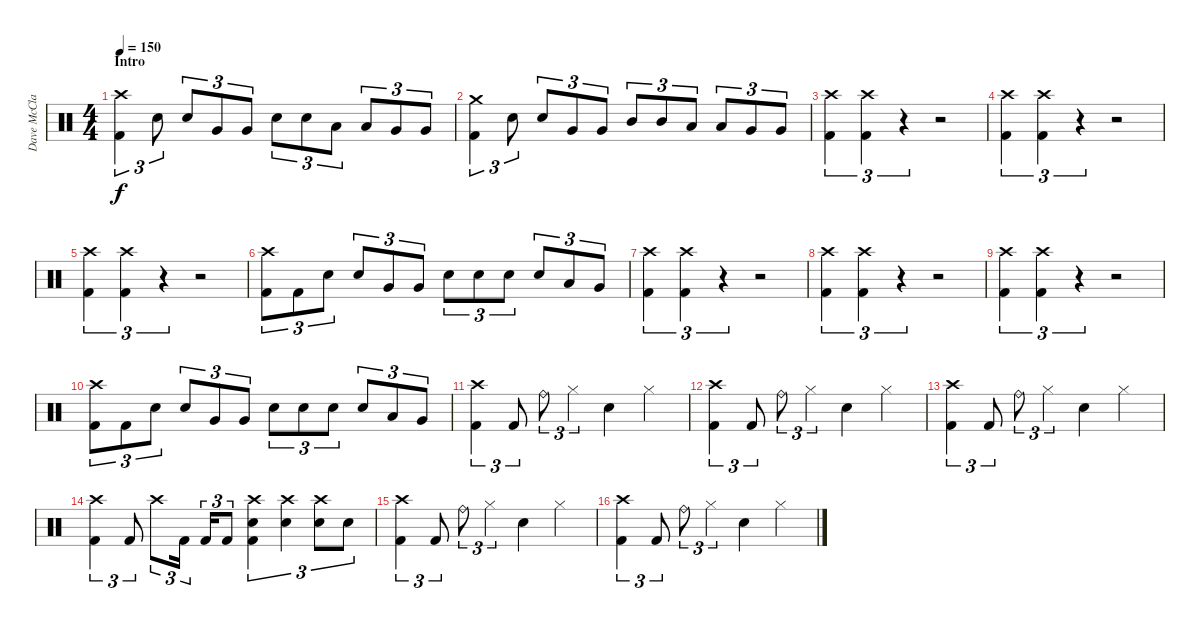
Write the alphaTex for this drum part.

\track ("Dave McClain" "Dave McCla") {instrument percussion}
\staff {score}
\articulation defaults
\ts (4 4)
\section ("" "Intro")
\tempo 150
\clef neutral
\ks c
("Crash high (hit)" "Kick (hit) 2").4{tu (3 2) dy f} "Electric Snare (hit)".8{tu (3 2)} "Electric Snare (hit)".8{tu (3 2)} "Very Low Tom (hit)".8{tu (3 2)} "Very Low Tom (hit)".8{tu (3 2)} "Electric Snare (hit)".8{tu (3 2)} "Electric Snare (hit)".8{tu (3 2)} "Low Tom (hit)".8{tu (3 2)} "Low Tom (hit)".8{tu (3 2)} "Very Low Tom (hit)".8{tu (3 2)} "Very Low Tom (hit)".8{tu (3 2)} |
("Crash medium (hit)" "Kick (hit) 2").4{tu (3 2)} "Electric Snare (hit)".8{tu (3 2)} "Electric Snare (hit)".8{tu (3 2)} "Very Low Tom (hit)".8{tu (3 2)} "Very Low Tom (hit)".8{tu (3 2)} "Mid Tom (hit)".8{tu (3 2)} "Mid Tom (hit)".8{tu (3 2)} "Low Tom (hit)".8{tu (3 2)} "Low Tom (hit)".8{tu (3 2)} "Very Low Tom (hit)".8{tu (3 2)} "Very Low Tom (hit)".8{tu (3 2)} |
("Crash high (hit)" "Kick (hit) 2").4{tu (3 2)} ("Crash high (hit)" "Kick (hit) 2").4{tu (3 2)} r.4{tu (3 2)} r.2 |
("Crash high (hit)" "Kick (hit) 2").4{tu (3 2)} ("Crash high (hit)" "Kick (hit) 2").4{tu (3 2)} r.4{tu (3 2)} r.2 |
("Crash high (hit)" "Kick (hit) 2").4{tu (3 2)} ("Crash high (hit)" "Kick (hit) 2").4{tu (3 2)} r.4{tu (3 2)} r.2 |
("Crash high (hit)" "Kick (hit) 2").8{tu (3 2)} "Kick (hit) 2".8{tu (3 2)} "Electric Snare (hit)".8{tu (3 2)} "Electric Snare (hit)".8{tu (3 2)} "Very Low Tom (hit)".8{tu (3 2)} "Very Low Tom (hit)".8{tu (3 2)} "Electric Snare (hit)".8{tu (3 2)} "Electric Snare (hit)".8{tu (3 2)} "Electric Snare (hit)".8{tu (3 2)} "Electric Snare (hit)".8{tu (3 2)} "Low Tom (hit)".8{tu (3 2)} "Very Low Tom (hit)".8{tu (3 2)} |
("Crash high (hit)" "Kick (hit) 2").4{tu (3 2)} ("Crash high (hit)" "Kick (hit) 2").4{tu (3 2)} r.4{tu (3 2)} r.2 |
("Crash high (hit)" "Kick (hit) 2").4{tu (3 2)} ("Crash high (hit)" "Kick (hit) 2").4{tu (3 2)} r.4{tu (3 2)} r.2 |
("Crash high (hit)" "Kick (hit) 2").4{tu (3 2)} ("Crash high (hit)" "Kick (hit) 2").4{tu (3 2)} r.4{tu (3 2)} r.2 |
("Crash high (hit)" "Kick (hit) 2").8{tu (3 2)} "Kick (hit) 2".8{tu (3 2)} "Electric Snare (hit)".8{tu (3 2)} "Electric Snare (hit)".8{tu (3 2)} "Very Low Tom (hit)".8{tu (3 2)} "Very Low Tom (hit)".8{tu (3 2)} "Electric Snare (hit)".8{tu (3 2)} "Electric Snare (hit)".8{tu (3 2)} "Electric Snare (hit)".8{tu (3 2)} "Electric Snare (hit)".8{tu (3 2)} "Low Tom (hit)".8{tu (3 2)} "Very Low Tom (hit)".8{tu (3 2)} |
("Crash high (hit)" "Kick (hit) 2").4{tu (3 2)} "Kick (hit) 2".8{tu (3 2)} "Ride (bell)".8{tu (3 2)} "Hi-Hat (closed)".4{tu (3 2)} "Electric Snare (hit)".4 "Hi-Hat (closed)".4 |
("Crash high (hit)" "Kick (hit) 2").4{tu (3 2)} "Kick (hit) 2".8{tu (3 2)} "Ride (bell)".8{tu (3 2)} "Hi-Hat (closed)".4{tu (3 2)} "Electric Snare (hit)".4 "Hi-Hat (closed)".4 |
("Crash high (hit)" "Kick (hit) 2").4{tu (3 2)} "Kick (hit) 2".8{tu (3 2)} "Ride (bell)".8{tu (3 2)} "Hi-Hat (closed)".4{tu (3 2)} "Electric Snare (hit)".4 "Hi-Hat (closed)".4 |
("Crash high (hit)" "Kick (hit) 2").4{tu (3 2)} "Kick (hit) 2".8{tu (3 2)} "Crash high (hit)".8{tu (3 2)} "Kick (hit) 2".16{tu (3 2)} "Kick (hit) 2".16{tu (3 2)} "Kick (hit) 2".8{tu (3 2)} ("Crash high (hit)" "Electric Snare (hit)" "Kick (hit) 2").4{tu (3 2)} ("Crash high (hit)" "Electric Snare (hit)").4{tu (3 2)} ("Crash high (hit)" "Electric Snare (hit)").8{tu (3 2)} "Electric Snare (hit)".8{tu (3 2)} |
("Crash high (hit)" "Kick (hit) 2").4{tu (3 2)} "Kick (hit) 2".8{tu (3 2)} "Ride (bell)".8{tu (3 2)} "Hi-Hat (closed)".4{tu (3 2)} "Electric Snare (hit)".4 "Hi-Hat (closed)".4 |
("Crash high (hit)" "Kick (hit) 2").4{tu (3 2)} "Kick (hit) 2".8{tu (3 2)} "Ride (bell)".8{tu (3 2)} "Hi-Hat (closed)".4{tu (3 2)} "Electric Snare (hit)".4 "Hi-Hat (closed)".4
